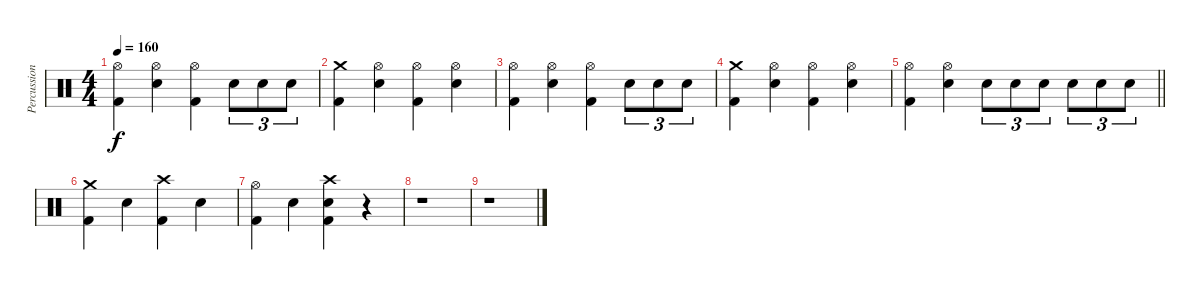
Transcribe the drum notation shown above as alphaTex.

\track ("Percussions" "Percussion") {instrument percussion}
\staff
\articulation defaults
\ts (4 4)
\tempo 160
\clef neutral
\ks c
("Hi-Hat (open)" "Kick (hit) 2").4{dy f} ("Hi-Hat (open)" "Electric Snare (hit)").4 ("Hi-Hat (open)" "Kick (hit) 2").4 "Electric Snare (hit)".8{tu (3 2)} "Electric Snare (hit)".8{tu (3 2)} "Electric Snare (hit)".8{tu (3 2)} |
("Crash medium (hit)" "Kick (hit) 2").4 ("Hi-Hat (open)" "Electric Snare (hit)").4 ("Hi-Hat (open)" "Kick (hit) 2").4 ("Hi-Hat (open)" "Electric Snare (hit)").4 |
("Hi-Hat (open)" "Kick (hit) 2").4 ("Hi-Hat (open)" "Electric Snare (hit)").4 ("Hi-Hat (open)" "Kick (hit) 2").4 "Electric Snare (hit)".8{tu (3 2)} "Electric Snare (hit)".8{tu (3 2)} "Electric Snare (hit)".8{tu (3 2)} |
("Crash medium (hit)" "Kick (hit) 2").4 ("Hi-Hat (open)" "Electric Snare (hit)").4 ("Hi-Hat (open)" "Kick (hit) 2").4 ("Hi-Hat (open)" "Electric Snare (hit)").4 |
\barLineRight lightlight
("Hi-Hat (open)" "Kick (hit) 2").4 ("Hi-Hat (open)" "Electric Snare (hit)").4 "Electric Snare (hit)".8{tu (3 2)} "Electric Snare (hit)".8{tu (3 2)} "Electric Snare (hit)".8{tu (3 2)} "Electric Snare (hit)".8{tu (3 2)} "Electric Snare (hit)".8{tu (3 2)} "Electric Snare (hit)".8{tu (3 2)} |
("Crash medium (hit)" "Kick (hit) 2").4 "Electric Snare (hit)".4 ("Crash high (hit)" "Kick (hit) 2").4 "Electric Snare (hit)".4 |
("Hi-Hat (open)" "Kick (hit) 2").4 "Electric Snare (hit)".4 ("Crash high (hit)" "Electric Snare (hit)" "Kick (hit) 2").4 r.4 |
r.1 |
r.1
